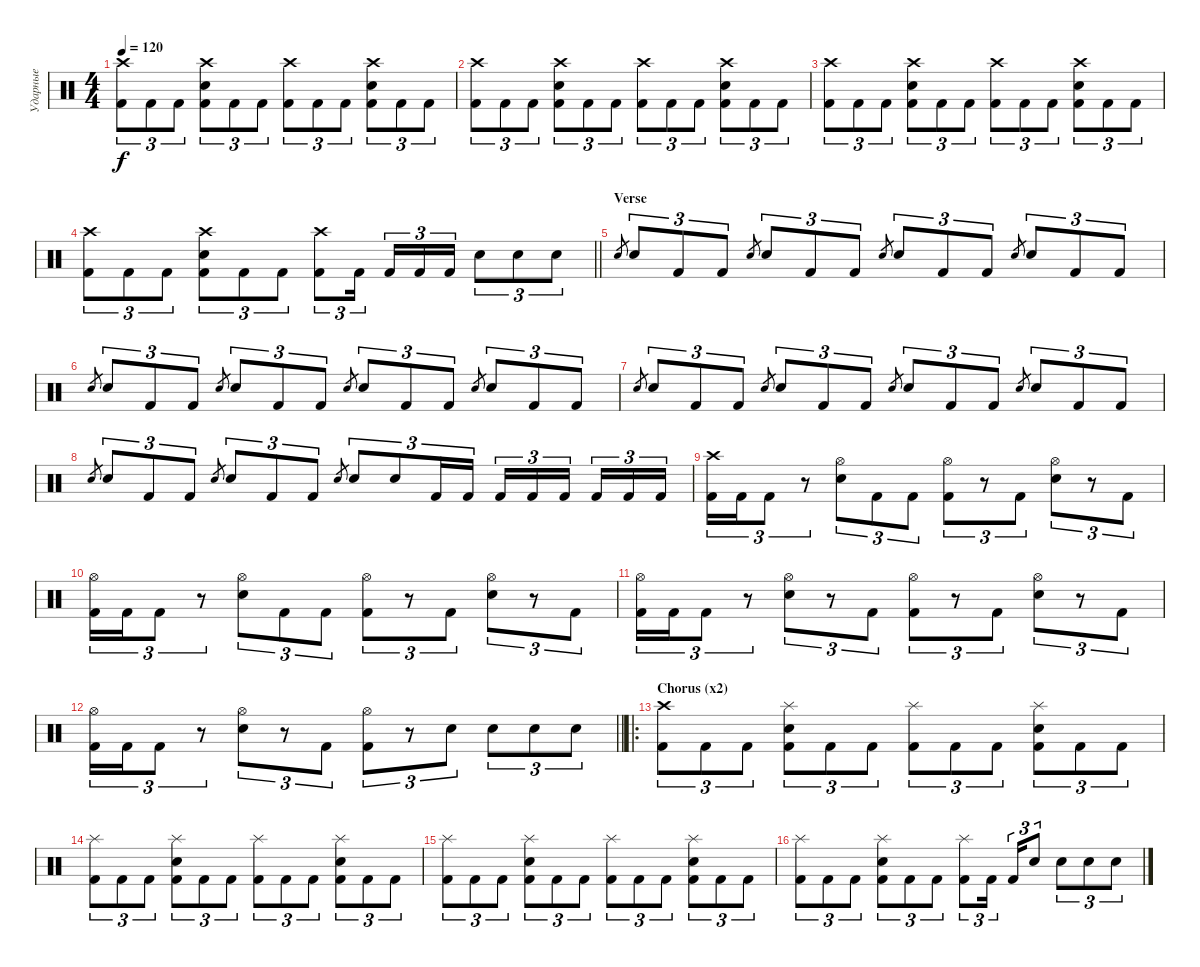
\track ("Ударные" "Ударные") {instrument percussion}
\staff {score}
\articulation defaults
\ts (4 4)
\tempo 120
\clef neutral
\ks c
("Crash high (hit)" "Kick (hit) 2").8{tu (3 2) dy f} "Kick (hit) 2".8{tu (3 2)} "Kick (hit) 2".8{tu (3 2)} ("Crash high (hit)" "Electric Snare (hit)" "Kick (hit) 2").8{tu (3 2)} "Kick (hit) 2".8{tu (3 2)} "Kick (hit) 2".8{tu (3 2)} ("Crash high (hit)" "Kick (hit) 2").8{tu (3 2)} "Kick (hit) 2".8{tu (3 2)} "Kick (hit) 2".8{tu (3 2)} ("Crash high (hit)" "Electric Snare (hit)" "Kick (hit) 2").8{tu (3 2)} "Kick (hit) 2".8{tu (3 2)} "Kick (hit) 2".8{tu (3 2)} |
("Crash high (hit)" "Kick (hit) 2").8{tu (3 2)} "Kick (hit) 2".8{tu (3 2)} "Kick (hit) 2".8{tu (3 2)} ("Crash high (hit)" "Electric Snare (hit)" "Kick (hit) 2").8{tu (3 2)} "Kick (hit) 2".8{tu (3 2)} "Kick (hit) 2".8{tu (3 2)} ("Crash high (hit)" "Kick (hit) 2").8{tu (3 2)} "Kick (hit) 2".8{tu (3 2)} "Kick (hit) 2".8{tu (3 2)} ("Crash high (hit)" "Electric Snare (hit)" "Kick (hit) 2").8{tu (3 2)} "Kick (hit) 2".8{tu (3 2)} "Kick (hit) 2".8{tu (3 2)} |
("Crash high (hit)" "Kick (hit) 2").8{tu (3 2)} "Kick (hit) 2".8{tu (3 2)} "Kick (hit) 2".8{tu (3 2)} ("Crash high (hit)" "Electric Snare (hit)" "Kick (hit) 2").8{tu (3 2)} "Kick (hit) 2".8{tu (3 2)} "Kick (hit) 2".8{tu (3 2)} ("Crash high (hit)" "Kick (hit) 2").8{tu (3 2)} "Kick (hit) 2".8{tu (3 2)} "Kick (hit) 2".8{tu (3 2)} ("Crash high (hit)" "Electric Snare (hit)" "Kick (hit) 2").8{tu (3 2)} "Kick (hit) 2".8{tu (3 2)} "Kick (hit) 2".8{tu (3 2)} |
\barLineRight lightlight
("Crash high (hit)" "Kick (hit) 2").8{tu (3 2)} "Kick (hit) 2".8{tu (3 2)} "Kick (hit) 2".8{tu (3 2)} ("Crash high (hit)" "Electric Snare (hit)" "Kick (hit) 2").8{tu (3 2)} "Kick (hit) 2".8{tu (3 2)} "Kick (hit) 2".8{tu (3 2)} ("Crash high (hit)" "Kick (hit) 2").8{tu (3 2)} "Kick (hit) 2".16{tu (3 2)} "Kick (hit) 2".16{tu (3 2)} "Kick (hit) 2".16{tu (3 2)} "Kick (hit) 2".16{tu (3 2)} "Electric Snare (hit)".8{tu (3 2)} "Electric Snare (hit)".8{tu (3 2)} "Electric Snare (hit)".8{tu (3 2)} |
\section ("" "Verse")
"Electric Snare (hit)".8{gr} "Electric Snare (hit)".8{tu (3 2)} "Kick (hit) 2".8{tu (3 2)} "Kick (hit) 2".8{tu (3 2)} "Electric Snare (hit)".8{gr} "Electric Snare (hit)".8{tu (3 2)} "Kick (hit) 2".8{tu (3 2)} "Kick (hit) 2".8{tu (3 2)} "Electric Snare (hit)".8{gr} "Electric Snare (hit)".8{tu (3 2)} "Kick (hit) 2".8{tu (3 2)} "Kick (hit) 2".8{tu (3 2)} "Electric Snare (hit)".8{gr} "Electric Snare (hit)".8{tu (3 2)} "Kick (hit) 2".8{tu (3 2)} "Kick (hit) 2".8{tu (3 2)} |
"Electric Snare (hit)".8{gr} "Electric Snare (hit)".8{tu (3 2)} "Kick (hit) 2".8{tu (3 2)} "Kick (hit) 2".8{tu (3 2)} "Electric Snare (hit)".8{gr} "Electric Snare (hit)".8{tu (3 2)} "Kick (hit) 2".8{tu (3 2)} "Kick (hit) 2".8{tu (3 2)} "Electric Snare (hit)".8{gr} "Electric Snare (hit)".8{tu (3 2)} "Kick (hit) 2".8{tu (3 2)} "Kick (hit) 2".8{tu (3 2)} "Electric Snare (hit)".8{gr} "Electric Snare (hit)".8{tu (3 2)} "Kick (hit) 2".8{tu (3 2)} "Kick (hit) 2".8{tu (3 2)} |
"Electric Snare (hit)".8{gr} "Electric Snare (hit)".8{tu (3 2)} "Kick (hit) 2".8{tu (3 2)} "Kick (hit) 2".8{tu (3 2)} "Electric Snare (hit)".8{gr} "Electric Snare (hit)".8{tu (3 2)} "Kick (hit) 2".8{tu (3 2)} "Kick (hit) 2".8{tu (3 2)} "Electric Snare (hit)".8{gr} "Electric Snare (hit)".8{tu (3 2)} "Kick (hit) 2".8{tu (3 2)} "Kick (hit) 2".8{tu (3 2)} "Electric Snare (hit)".8{gr} "Electric Snare (hit)".8{tu (3 2)} "Kick (hit) 2".8{tu (3 2)} "Kick (hit) 2".8{tu (3 2)} |
"Electric Snare (hit)".8{gr} "Electric Snare (hit)".8{tu (3 2)} "Kick (hit) 2".8{tu (3 2)} "Kick (hit) 2".8{tu (3 2)} "Electric Snare (hit)".8{gr} "Electric Snare (hit)".8{tu (3 2)} "Kick (hit) 2".8{tu (3 2)} "Kick (hit) 2".8{tu (3 2)} "Electric Snare (hit)".8{gr} "Electric Snare (hit)".8{tu (3 2)} "Electric Snare (hit)".8{tu (3 2)} "Kick (hit) 2".16{tu (3 2)} "Kick (hit) 2".16{tu (3 2)} "Kick (hit) 2".16{tu (3 2)} "Kick (hit) 2".16{tu (3 2)} "Kick (hit) 2".16{tu (3 2)} "Kick (hit) 2".16{tu (3 2)} "Kick (hit) 2".16{tu (3 2)} "Kick (hit) 2".16{tu (3 2)} |
("Crash high (hit)" "Kick (hit) 2").16{tu (3 2)} "Kick (hit) 2".16{tu (3 2)} "Kick (hit) 2".8{tu (3 2)} r.8{tu (3 2)} ("Hi-Hat (open)" "Electric Snare (hit)").8{tu (3 2)} "Kick (hit) 2".8{tu (3 2)} "Kick (hit) 2".8{tu (3 2)} ("Hi-Hat (open)" "Kick (hit) 2").8{tu (3 2)} r.8{tu (3 2)} "Kick (hit) 2".8{tu (3 2)} ("Hi-Hat (open)" "Electric Snare (hit)").8{tu (3 2)} r.8{tu (3 2)} "Kick (hit) 2".8{tu (3 2)} |
("Hi-Hat (open)" "Kick (hit) 2").16{tu (3 2)} "Kick (hit) 2".16{tu (3 2)} "Kick (hit) 2".8{tu (3 2)} r.8{tu (3 2)} ("Hi-Hat (open)" "Electric Snare (hit)").8{tu (3 2)} "Kick (hit) 2".8{tu (3 2)} "Kick (hit) 2".8{tu (3 2)} ("Hi-Hat (open)" "Kick (hit) 2").8{tu (3 2)} r.8{tu (3 2)} "Kick (hit) 2".8{tu (3 2)} ("Hi-Hat (open)" "Electric Snare (hit)").8{tu (3 2)} r.8{tu (3 2)} "Kick (hit) 2".8{tu (3 2)} |
("Hi-Hat (open)" "Kick (hit) 2").16{tu (3 2)} "Kick (hit) 2".16{tu (3 2)} "Kick (hit) 2".8{tu (3 2)} r.8{tu (3 2)} ("Hi-Hat (open)" "Electric Snare (hit)").8{tu (3 2)} r.8{tu (3 2)} "Kick (hit) 2".8{tu (3 2)} ("Hi-Hat (open)" "Kick (hit) 2").8{tu (3 2)} r.8{tu (3 2)} "Kick (hit) 2".8{tu (3 2)} ("Hi-Hat (open)" "Electric Snare (hit)").8{tu (3 2)} r.8{tu (3 2)} "Kick (hit) 2".8{tu (3 2)} |
\barLineRight lightlight
("Hi-Hat (open)" "Kick (hit) 2").16{tu (3 2)} "Kick (hit) 2".16{tu (3 2)} "Kick (hit) 2".8{tu (3 2)} r.8{tu (3 2)} ("Hi-Hat (open)" "Electric Snare (hit)").8{tu (3 2)} r.8{tu (3 2)} "Kick (hit) 2".8{tu (3 2)} ("Hi-Hat (open)" "Kick (hit) 2").8{tu (3 2)} r.8{tu (3 2)} "Electric Snare (hit)".8{tu (3 2)} "Electric Snare (hit)".8{tu (3 2)} "Electric Snare (hit)".8{tu (3 2)} "Electric Snare (hit)".8{tu (3 2)} |
\ro
\section ("" "Chorus (x2)")
("Crash high (hit)" "Kick (hit) 2").8{tu (3 2)} "Kick (hit) 2".8{tu (3 2)} "Kick (hit) 2".8{tu (3 2)} ("Splash (hit)" "Electric Snare (hit)" "Kick (hit) 2").8{tu (3 2)} "Kick (hit) 2".8{tu (3 2)} "Kick (hit) 2".8{tu (3 2)} ("Splash (hit)" "Kick (hit) 2").8{tu (3 2)} "Kick (hit) 2".8{tu (3 2)} "Kick (hit) 2".8{tu (3 2)} ("Splash (hit)" "Electric Snare (hit)" "Kick (hit) 2").8{tu (3 2)} "Kick (hit) 2".8{tu (3 2)} "Kick (hit) 2".8{tu (3 2)} |
("Splash (hit)" "Kick (hit) 2").8{tu (3 2)} "Kick (hit) 2".8{tu (3 2)} "Kick (hit) 2".8{tu (3 2)} ("Splash (hit)" "Electric Snare (hit)" "Kick (hit) 2").8{tu (3 2)} "Kick (hit) 2".8{tu (3 2)} "Kick (hit) 2".8{tu (3 2)} ("Splash (hit)" "Kick (hit) 2").8{tu (3 2)} "Kick (hit) 2".8{tu (3 2)} "Kick (hit) 2".8{tu (3 2)} ("Splash (hit)" "Electric Snare (hit)" "Kick (hit) 2").8{tu (3 2)} "Kick (hit) 2".8{tu (3 2)} "Kick (hit) 2".8{tu (3 2)} |
("Splash (hit)" "Kick (hit) 2").8{tu (3 2)} "Kick (hit) 2".8{tu (3 2)} "Kick (hit) 2".8{tu (3 2)} ("Splash (hit)" "Electric Snare (hit)" "Kick (hit) 2").8{tu (3 2)} "Kick (hit) 2".8{tu (3 2)} "Kick (hit) 2".8{tu (3 2)} ("Splash (hit)" "Kick (hit) 2").8{tu (3 2)} "Kick (hit) 2".8{tu (3 2)} "Kick (hit) 2".8{tu (3 2)} ("Splash (hit)" "Electric Snare (hit)" "Kick (hit) 2").8{tu (3 2)} "Kick (hit) 2".8{tu (3 2)} "Kick (hit) 2".8{tu (3 2)} |
("Splash (hit)" "Kick (hit) 2").8{tu (3 2)} "Kick (hit) 2".8{tu (3 2)} "Kick (hit) 2".8{tu (3 2)} ("Splash (hit)" "Electric Snare (hit)" "Kick (hit) 2").8{tu (3 2)} "Kick (hit) 2".8{tu (3 2)} "Kick (hit) 2".8{tu (3 2)} ("Splash (hit)" "Kick (hit) 2").8{tu (3 2)} "Kick (hit) 2".16{tu (3 2)} "Kick (hit) 2".16{tu (3 2)} "Electric Snare (hit)".8{tu (3 2)} "Electric Snare (hit)".8{tu (3 2)} "Electric Snare (hit)".8{tu (3 2)} "Electric Snare (hit)".8{tu (3 2)}
